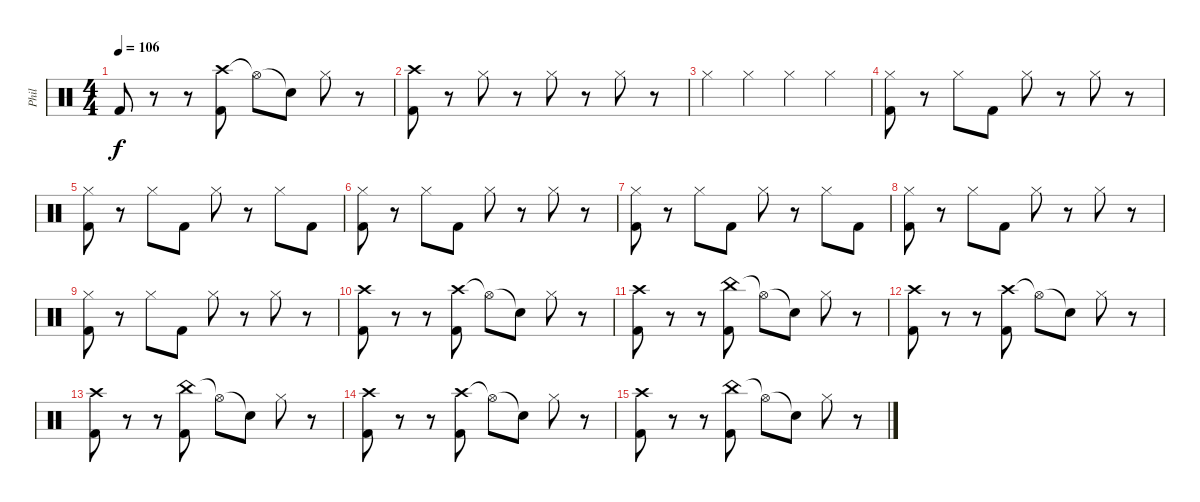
\track ("Phil" "Phil") {instrument percussion}
\staff {score}
\articulation defaults
\ts (4 4)
\tempo 106
\clef neutral
\ks c "Kick (hit) 2".8{dy f}
r.8 r.8 ("Crash high (hit)" "Kick (hit) 2").8 "Hi-Hat (open)"{t}.8 "Snare (hit)"{t}.8 "Hi-Hat (closed)".8 r.8 |
("Crash high (hit)" "Kick (hit) 2").8 r.8 "Hi-Hat (closed)".8 r.8 "Hi-Hat (closed)".8 r.8 "Hi-Hat (closed)".8 r.8 |
"Hi-Hat (closed)".4 "Hi-Hat (closed)".4 "Hi-Hat (closed)".4 "Hi-Hat (closed)".4 |
("Hi-Hat (closed)" "Kick (hit) 2").8 r.8 "Hi-Hat (closed)".8 "Kick (hit) 2".8 "Hi-Hat (closed)".8 r.8 "Hi-Hat (closed)".8 r.8 |
("Hi-Hat (closed)" "Kick (hit) 2").8 r.8 "Hi-Hat (closed)".8 "Kick (hit) 2".8 "Hi-Hat (closed)".8 r.8 "Hi-Hat (closed)".8 "Kick (hit) 2".8 |
("Hi-Hat (closed)" "Kick (hit) 2").8 r.8 "Hi-Hat (closed)".8 "Kick (hit) 2".8 "Hi-Hat (closed)".8 r.8 "Hi-Hat (closed)".8 r.8 |
("Hi-Hat (closed)" "Kick (hit) 2").8 r.8 "Hi-Hat (closed)".8 "Kick (hit) 2".8 "Hi-Hat (closed)".8 r.8 "Hi-Hat (closed)".8 "Kick (hit) 2".8 |
("Hi-Hat (closed)" "Kick (hit) 2").8 r.8 "Hi-Hat (closed)".8 "Kick (hit) 2".8 "Hi-Hat (closed)".8 r.8 "Hi-Hat (closed)".8 r.8 |
("Hi-Hat (closed)" "Kick (hit) 2").8 r.8 "Hi-Hat (closed)".8 "Kick (hit) 2".8 "Hi-Hat (closed)".8 r.8 "Hi-Hat (closed)".8 r.8 |
("Crash high (hit)" "Kick (hit) 2").8 r.8 r.8 ("Crash high (hit)" "Kick (hit) 2").8 "Hi-Hat (open)"{t}.8 "Snare (hit)"{t}.8 "Hi-Hat (closed)".8 r.8 |
("Crash high (hit)" "Kick (hit) 2").8 r.8 r.8 ("China (hit)" "Kick (hit) 2").8 "Hi-Hat (open)"{t}.8 "Snare (hit)"{t}.8 "Hi-Hat (closed)".8 r.8 |
("Crash high (hit)" "Kick (hit) 2").8 r.8 r.8 ("Crash high (hit)" "Kick (hit) 2").8 "Hi-Hat (open)"{t}.8 "Snare (hit)"{t}.8 "Hi-Hat (closed)".8 r.8 |
("Crash high (hit)" "Kick (hit) 2").8 r.8 r.8 ("China (hit)" "Kick (hit) 2").8 "Hi-Hat (open)"{t}.8 "Snare (hit)"{t}.8 "Hi-Hat (closed)".8 r.8 |
("Crash high (hit)" "Kick (hit) 2").8 r.8 r.8 ("Crash high (hit)" "Kick (hit) 2").8 "Hi-Hat (open)"{t}.8 "Snare (hit)"{t}.8 "Hi-Hat (closed)".8 r.8 |
("Crash high (hit)" "Kick (hit) 2").8 r.8 r.8 ("China (hit)" "Kick (hit) 2").8 "Hi-Hat (open)"{t}.8 "Snare (hit)"{t}.8 "Hi-Hat (closed)".8 r.8
